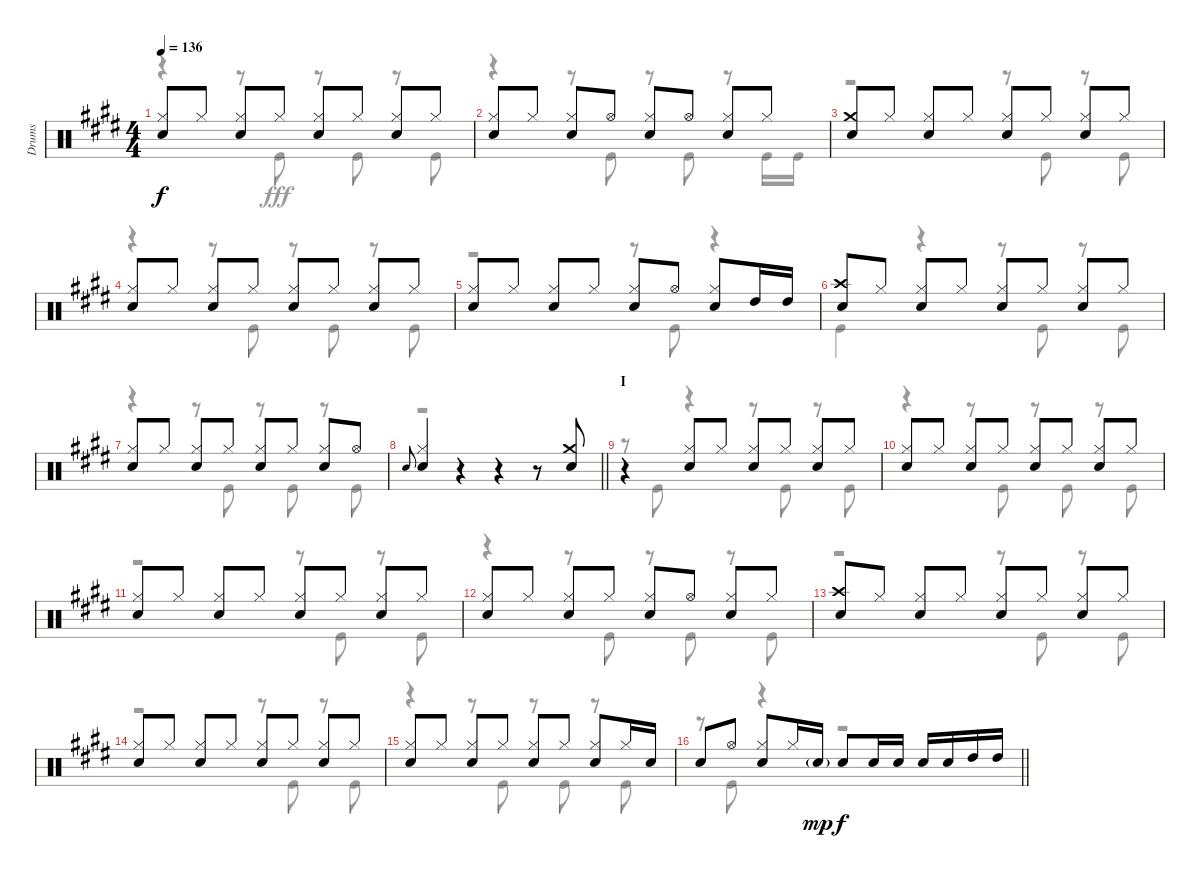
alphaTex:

\track ("Drums" "Drums") {instrument percussion}
\staff {score}
\articulation defaults
\voice
\ts (4 4)
\tempo 136
\clef neutral
\ks e
("Hi-Hat (closed)" "Snare (hit) 2").8{dy f} "Hi-Hat (closed)".8 ("Hi-Hat (closed)" "Snare (hit) 2").8 "Hi-Hat (closed)".8 ("Hi-Hat (closed)" "Snare (hit) 2").8 "Hi-Hat (closed)".8 ("Hi-Hat (closed)" "Snare (hit) 2").8 "Hi-Hat (closed)".8 |
("Hi-Hat (closed)" "Snare (hit) 2").8 "Hi-Hat (closed)".8 ("Hi-Hat (closed)" "Snare (hit) 2").8 "Hi-Hat (open)".8 ("Hi-Hat (closed)" "Snare (hit) 2").8 "Hi-Hat (open)".8 ("Hi-Hat (closed)" "Snare (hit) 2").8 "Hi-Hat (closed)".8 |
("Crash medium (hit)" "Snare (hit) 2").8 "Hi-Hat (closed)".8 ("Hi-Hat (closed)" "Snare (hit) 2").8 "Hi-Hat (closed)".8 ("Hi-Hat (closed)" "Snare (hit) 2").8 "Hi-Hat (closed)".8 ("Hi-Hat (closed)" "Snare (hit) 2").8 "Hi-Hat (closed)".8 |
("Hi-Hat (closed)" "Snare (hit) 2").8 "Hi-Hat (closed)".8 ("Hi-Hat (closed)" "Snare (hit) 2").8 "Hi-Hat (closed)".8 ("Hi-Hat (closed)" "Snare (hit) 2").8 "Hi-Hat (closed)".8 ("Hi-Hat (closed)" "Snare (hit) 2").8 "Hi-Hat (closed)".8 |
("Hi-Hat (closed)" "Snare (hit) 2").8 "Hi-Hat (closed)".8 ("Hi-Hat (closed)" "Snare (hit) 2").8 "Hi-Hat (closed)".8 ("Hi-Hat (closed)" "Snare (hit) 2").8 "Hi-Hat (open)".8 ("Hi-Hat (closed)" "Snare (hit) 2").8 "High Tom (hit)".16 "High Tom (hit)".16 |
("Crash high (hit)" "Snare (hit) 2").8 "Hi-Hat (closed)".8 ("Hi-Hat (closed)" "Snare (hit) 2").8 "Hi-Hat (closed)".8 ("Hi-Hat (closed)" "Snare (hit) 2").8 "Hi-Hat (closed)".8 ("Hi-Hat (closed)" "Snare (hit) 2").8 "Hi-Hat (closed)".8 |
("Hi-Hat (closed)" "Snare (hit) 2").8 "Hi-Hat (closed)".8 ("Hi-Hat (closed)" "Snare (hit) 2").8 "Hi-Hat (closed)".8 ("Hi-Hat (closed)" "Snare (hit) 2").8 "Hi-Hat (closed)".8 ("Hi-Hat (closed)" "Snare (hit) 2").8 "Hi-Hat (open)".8 |
\barLineRight lightlight "Snare (hit) 2".8{gr onbeat}
("Hi-Hat (closed)" "Snare (hit) 2").4 r.4 r.4 r.8 ("Crash medium (hit)" "Snare (hit) 2").8 |
\section ("" "I")
r.4 ("Hi-Hat (closed)" "Snare (hit) 2").8 "Hi-Hat (closed)".8 ("Hi-Hat (closed)" "Snare (hit) 2").8 "Hi-Hat (closed)".8 ("Hi-Hat (closed)" "Snare (hit) 2").8 "Hi-Hat (closed)".8 |
("Hi-Hat (closed)" "Snare (hit) 2").8 "Hi-Hat (closed)".8 ("Hi-Hat (closed)" "Snare (hit) 2").8 "Hi-Hat (closed)".8 ("Hi-Hat (closed)" "Snare (hit) 2").8 "Hi-Hat (closed)".8 ("Hi-Hat (closed)" "Snare (hit) 2").8 "Hi-Hat (closed)".8 |
("Hi-Hat (closed)" "Snare (hit) 2").8 "Hi-Hat (closed)".8 ("Hi-Hat (closed)" "Snare (hit) 2").8 "Hi-Hat (closed)".8 ("Hi-Hat (closed)" "Snare (hit) 2").8 "Hi-Hat (closed)".8 ("Hi-Hat (closed)" "Snare (hit) 2").8 "Hi-Hat (closed)".8 |
("Hi-Hat (closed)" "Snare (hit) 2").8 "Hi-Hat (closed)".8 ("Hi-Hat (closed)" "Snare (hit) 2").8 "Hi-Hat (closed)".8 ("Hi-Hat (closed)" "Snare (hit) 2").8 "Hi-Hat (open)".8 ("Hi-Hat (closed)" "Snare (hit) 2").8 "Hi-Hat (closed)".8 |
("Crash high (hit)" "Snare (hit) 2").8 "Hi-Hat (closed)".8 ("Hi-Hat (closed)" "Snare (hit) 2").8 "Hi-Hat (closed)".8 ("Hi-Hat (closed)" "Snare (hit) 2").8 "Hi-Hat (closed)".8 ("Hi-Hat (closed)" "Snare (hit) 2").8 "Hi-Hat (closed)".8 |
("Hi-Hat (closed)" "Snare (hit) 2").8 "Hi-Hat (closed)".8 ("Hi-Hat (closed)" "Snare (hit) 2").8 "Hi-Hat (closed)".8 ("Hi-Hat (closed)" "Snare (hit) 2").8 "Hi-Hat (closed)".8 ("Hi-Hat (closed)" "Snare (hit) 2").8 "Hi-Hat (closed)".8 |
("Hi-Hat (closed)" "Snare (hit) 2").8 "Hi-Hat (closed)".8 ("Hi-Hat (closed)" "Snare (hit) 2").8 "Hi-Hat (closed)".8 ("Hi-Hat (closed)" "Snare (hit) 2").8 "Hi-Hat (closed)".8 ("Hi-Hat (closed)" "Snare (hit) 2").8 "Hi-Hat (closed)".16 "Snare (hit) 2".16 |
\barLineRight lightlight "Snare (hit) 2".8 "Hi-Hat (open)".8
("Hi-Hat (closed)" "Snare (hit) 2").8 "Hi-Hat (closed)".16 "Snare (hit) 2"{g}.16{dy mp} "Snare (hit) 2".8{dy f} "Snare (hit) 2".16 "Snare (hit) 2".16 "Snare (hit) 2".16 "Snare (hit) 2".16 "High Tom (hit)".16 "High Tom (hit)".16
\voice
\clef neutral
\ottava regular
\simile none
\ks e
r.4{dy fff} r.8 "Kick (hit)".8 r.8 "Kick (hit)".8 r.8 "Kick (hit)".8 |
r.4 r.8 "Kick (hit)".8 r.8 "Kick (hit)".8 r.8 "Kick (hit)".16 "Kick (hit)".16 |
r.2 r.8 "Kick (hit)".8 r.8 "Kick (hit)".8 |
r.4 r.8 "Kick (hit)".8 r.8 "Kick (hit)".8 r.8 "Kick (hit)".8 |
r.2 r.8 "Kick (hit)".8 r.4 |
"Kick (hit)".4 r.4 r.8 "Kick (hit)".8 r.8 "Kick (hit)".8 |
r.4 r.8 "Kick (hit)".8 r.8 "Kick (hit)".8 r.8 "Kick (hit)".8 |
\barLineRight lightlight
r.1 |
r.8 "Kick (hit)".8 r.4 r.8 "Kick (hit)".8 r.8 "Kick (hit)".8 |
r.4 r.8 "Kick (hit)".8 r.8 "Kick (hit)".8 r.8 "Kick (hit)".8 |
r.2 r.8 "Kick (hit)".8 r.8 "Kick (hit)".8 |
r.4 r.8 "Kick (hit)".8 r.8 "Kick (hit)".8 r.8 "Kick (hit)".8 |
r.2 r.8 "Kick (hit)".8 r.8 "Kick (hit)".8 |
r.2 r.8 "Kick (hit)".8 r.8 "Kick (hit)".8 |
r.4 r.8 "Kick (hit)".8 r.8 "Kick (hit)".8 r.8 "Kick (hit)".8 |
\barLineRight lightlight
r.8 "Kick (hit)".8 r.4 r.2
